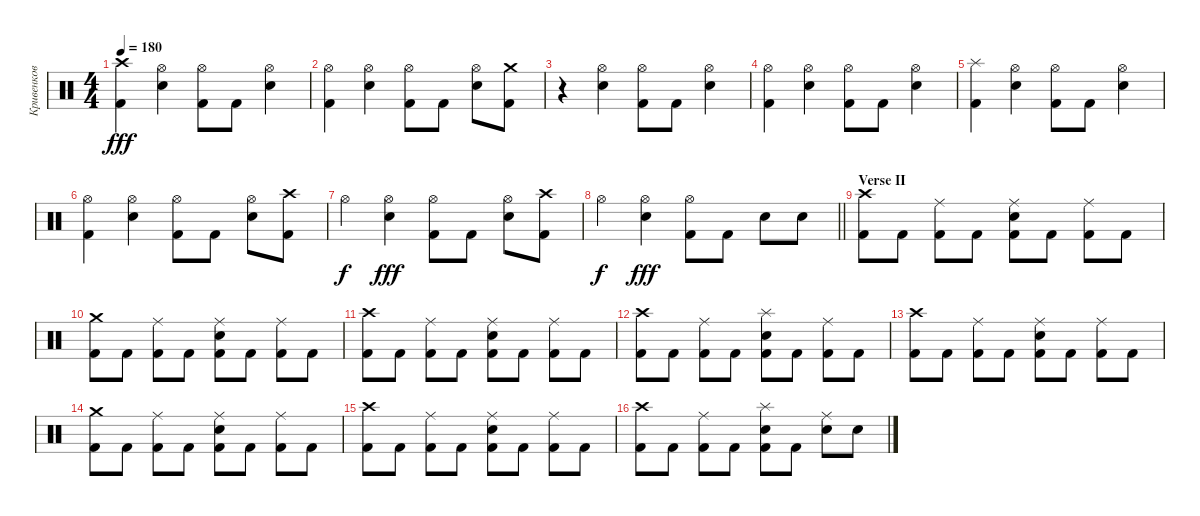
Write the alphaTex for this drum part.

\track ("Кривенков" "Кривенков") {instrument percussion}
\staff {score}
\articulation defaults
\ts (4 4)
\tempo 180
\clef neutral
\ks c
("Kick (hit) 2" "Crash high (hit)").4{dy fff} ("Snare (hit) 2" "Hi-Hat (open)").4 ("Hi-Hat (open)" "Kick (hit) 2").8 "Kick (hit) 2".8 ("Hi-Hat (open)" "Snare (hit) 2").4 |
("Hi-Hat (open)" "Kick (hit) 2").4 ("Hi-Hat (open)" "Snare (hit) 2").4 ("Kick (hit) 2" "Hi-Hat (open)").8 "Kick (hit) 2".8 ("Hi-Hat (open)" "Snare (hit) 2").8 ("Crash medium (hit)" "Kick (hit) 2").8 |
r.4 ("Snare (hit) 2" "Hi-Hat (open)").4 ("Hi-Hat (open)" "Kick (hit) 2").8 "Kick (hit) 2".8 ("Hi-Hat (open)" "Snare (hit) 2").4 |
("Hi-Hat (open)" "Kick (hit) 2").4 ("Snare (hit) 2" "Hi-Hat (open)").4 ("Kick (hit) 2" "Hi-Hat (open)").8 "Kick (hit) 2".8 ("Hi-Hat (open)" "Snare (hit) 2").4 |
("Kick (hit) 2" "Splash (hit)").4 ("Snare (hit) 2" "Hi-Hat (open)").4 ("Kick (hit) 2" "Hi-Hat (open)").8 "Kick (hit) 2".8 ("Hi-Hat (open)" "Snare (hit) 2").4 |
("Kick (hit) 2" "Hi-Hat (open)").4 ("Snare (hit) 2" "Hi-Hat (open)").4 ("Kick (hit) 2" "Hi-Hat (open)").8 "Kick (hit) 2".8 ("Hi-Hat (open)" "Snare (hit) 2").8 ("Crash high (hit)" "Kick (hit) 2").8 |
"Hi-Hat (open)".4{dy f} ("Snare (hit) 2" "Hi-Hat (open)").4{dy fff} ("Hi-Hat (open)" "Kick (hit) 2").8 "Kick (hit) 2".8 ("Snare (hit) 2" "Hi-Hat (open)").8 ("Crash high (hit)" "Kick (hit) 2").8 |
\barLineRight lightlight "Hi-Hat (open)".4{dy f}
("Snare (hit) 2" "Hi-Hat (open)").4{dy fff} ("Kick (hit) 2" "Hi-Hat (open)").8 "Kick (hit) 2".8 "Snare (hit) 2".8 "Snare (hit) 2".8 |
\section ("" "Verse II")
("Crash high (hit)" "Kick (hit) 2").8 "Kick (hit) 2".8 ("Ride (middle)" "Kick (hit) 2").8 "Kick (hit) 2".8 ("Snare (hit) 2" "Ride (middle)" "Kick (hit) 2").8 "Kick (hit) 2".8 ("Ride (middle)" "Kick (hit) 2").8 "Kick (hit) 2".8 |
("Crash medium (hit)" "Kick (hit) 2").8 "Kick (hit) 2".8 ("Ride (middle)" "Kick (hit) 2").8 "Kick (hit) 2".8 ("Snare (hit) 2" "Kick (hit) 2" "Ride (middle)").8 "Kick (hit) 2".8 ("Ride (middle)" "Kick (hit) 2").8 "Kick (hit) 2".8 |
("Kick (hit) 2" "Crash high (hit)").8 "Kick (hit) 2".8 ("Kick (hit) 2" "Ride (middle)").8 "Kick (hit) 2".8 ("Kick (hit) 2" "Snare (hit) 2" "Ride (middle)").8 "Kick (hit) 2".8 ("Ride (middle)" "Kick (hit) 2").8 "Kick (hit) 2".8 |
("Kick (hit) 2" "Crash high (hit)").8 "Kick (hit) 2".8 ("Kick (hit) 2" "Ride (middle)").8 "Kick (hit) 2".8 ("Kick (hit) 2" "Splash (hit)" "Snare (hit) 2").8 "Kick (hit) 2".8 ("Kick (hit) 2" "Ride (middle)").8 "Kick (hit) 2".8 |
("Crash high (hit)" "Kick (hit) 2").8 "Kick (hit) 2".8 ("Kick (hit) 2" "Ride (middle)").8 "Kick (hit) 2".8 ("Snare (hit) 2" "Ride (middle)" "Kick (hit) 2").8 "Kick (hit) 2".8 ("Kick (hit) 2" "Ride (middle)").8 "Kick (hit) 2".8 |
("Crash medium (hit)" "Kick (hit) 2").8 "Kick (hit) 2".8 ("Kick (hit) 2" "Ride (middle)").8 "Kick (hit) 2".8 ("Kick (hit) 2" "Snare (hit) 2" "Ride (middle)").8 "Kick (hit) 2".8 ("Ride (middle)" "Kick (hit) 2").8 "Kick (hit) 2".8 |
("Kick (hit) 2" "Crash high (hit)").8 "Kick (hit) 2".8 ("Ride (middle)" "Kick (hit) 2").8 "Kick (hit) 2".8 ("Kick (hit) 2" "Snare (hit) 2" "Ride (middle)").8 "Kick (hit) 2".8 ("Ride (middle)" "Kick (hit) 2").8 "Kick (hit) 2".8 |
("Crash high (hit)" "Kick (hit) 2").8 "Kick (hit) 2".8 ("Kick (hit) 2" "Ride (middle)").8 "Kick (hit) 2".8 ("Kick (hit) 2" "Splash (hit)" "Snare (hit) 2").8 "Kick (hit) 2".8 ("Snare (hit) 2" "Ride (middle)").8 "Snare (hit) 2".8
